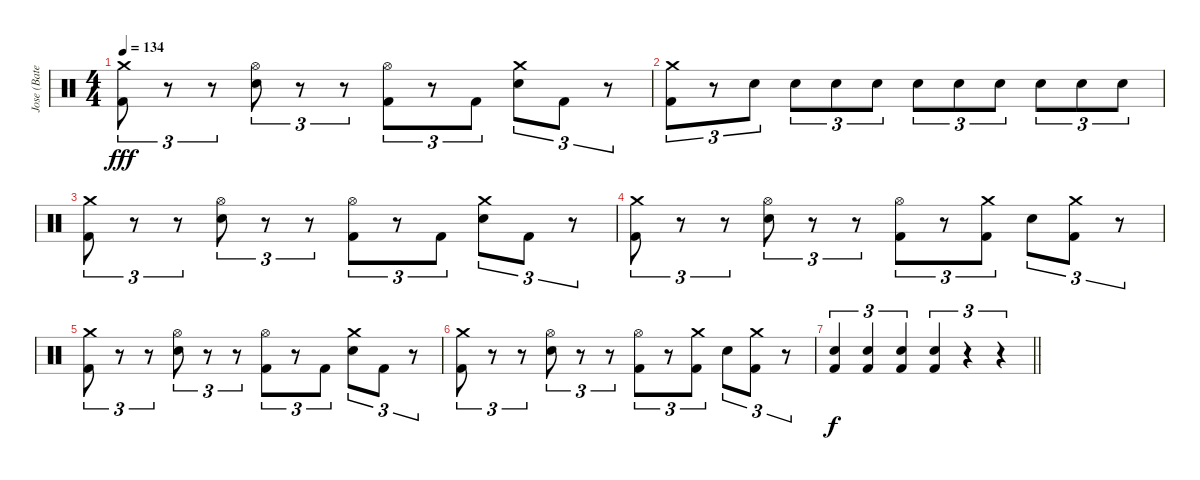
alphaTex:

\track ("Jose (Bateria)" "Jose (Bate") {instrument percussion}
\staff {score}
\articulation defaults
\ts (4 4)
\tempo 134
\clef neutral
\ks c
("Crash medium (hit)" "Kick (hit) 2").8{tu (3 2) dy fff} r.8{tu (3 2)} r.8{tu (3 2)} ("Hi-Hat (open)" "Snare (hit) 2").8{tu (3 2)} r.8{tu (3 2)} r.8{tu (3 2)} ("Hi-Hat (open)" "Kick (hit) 2").8{tu (3 2)} r.8{tu (3 2)} "Kick (hit) 2".8{tu (3 2)} ("Crash medium (hit)" "Snare (hit) 2").8{tu (3 2)} "Kick (hit) 2".8{tu (3 2)} r.8{tu (3 2)} |
("Crash medium (hit)" "Kick (hit) 2").8{tu (3 2)} r.8{tu (3 2)} "Snare (hit) 2".8{tu (3 2)} "Snare (hit) 2".8{tu (3 2)} "Snare (hit) 2".8{tu (3 2)} "Snare (hit) 2".8{tu (3 2)} "Snare (hit) 2".8{tu (3 2)} "Snare (hit) 2".8{tu (3 2)} "Snare (hit) 2".8{tu (3 2)} "Snare (hit) 2".8{tu (3 2)} "Snare (hit) 2".8{tu (3 2)} "Snare (hit) 2".8{tu (3 2)} |
("Crash medium (hit)" "Kick (hit) 2").8{tu (3 2)} r.8{tu (3 2)} r.8{tu (3 2)} ("Hi-Hat (open)" "Snare (hit) 2").8{tu (3 2)} r.8{tu (3 2)} r.8{tu (3 2)} ("Hi-Hat (open)" "Kick (hit) 2").8{tu (3 2)} r.8{tu (3 2)} "Kick (hit) 2".8{tu (3 2)} ("Crash medium (hit)" "Snare (hit) 2").8{tu (3 2)} "Kick (hit) 2".8{tu (3 2)} r.8{tu (3 2)} |
("Crash medium (hit)" "Kick (hit) 2").8{tu (3 2)} r.8{tu (3 2)} r.8{tu (3 2)} ("Hi-Hat (open)" "Snare (hit) 2").8{tu (3 2)} r.8{tu (3 2)} r.8{tu (3 2)} ("Hi-Hat (open)" "Kick (hit) 2").8{tu (3 2)} r.8{tu (3 2)} ("Crash medium (hit)" "Kick (hit) 2").8{tu (3 2)} "Snare (hit) 2".8{tu (3 2)} ("Crash medium (hit)" "Kick (hit) 2").8{tu (3 2)} r.8{tu (3 2)} |
("Crash medium (hit)" "Kick (hit) 2").8{tu (3 2)} r.8{tu (3 2)} r.8{tu (3 2)} ("Hi-Hat (open)" "Snare (hit) 2").8{tu (3 2)} r.8{tu (3 2)} r.8{tu (3 2)} ("Hi-Hat (open)" "Kick (hit) 2").8{tu (3 2)} r.8{tu (3 2)} "Kick (hit) 2".8{tu (3 2)} ("Crash medium (hit)" "Snare (hit) 2").8{tu (3 2)} "Kick (hit) 2".8{tu (3 2)} r.8{tu (3 2)} |
("Crash medium (hit)" "Kick (hit) 2").8{tu (3 2)} r.8{tu (3 2)} r.8{tu (3 2)} ("Hi-Hat (open)" "Snare (hit) 2").8{tu (3 2)} r.8{tu (3 2)} r.8{tu (3 2)} ("Hi-Hat (open)" "Kick (hit) 2").8{tu (3 2)} r.8{tu (3 2)} ("Crash medium (hit)" "Kick (hit) 2").8{tu (3 2)} "Snare (hit) 2".8{tu (3 2)} ("Crash medium (hit)" "Kick (hit) 2").8{tu (3 2)} r.8{tu (3 2)} |
\barLineRight lightlight
("Snare (hit) 2" "Kick (hit) 2").4{tu (3 2) dy f} ("Snare (hit) 2" "Kick (hit) 2").4{tu (3 2)} ("Snare (hit) 2" "Kick (hit) 2").4{tu (3 2)} ("Snare (hit) 2" "Kick (hit) 2").4{tu (3 2)} r.4{tu (3 2)} r.4{tu (3 2)}
